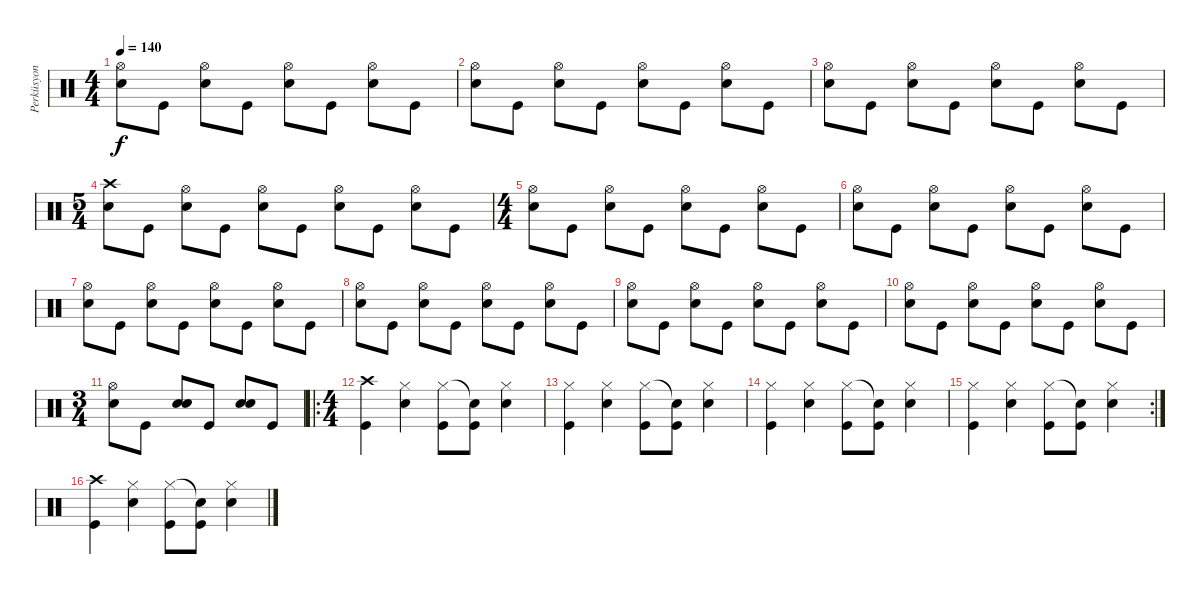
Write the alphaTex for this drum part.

\track ("Perküsyon" "Perküsyon") {instrument percussion}
\staff {score}
\articulation defaults
\ts (4 4)
\tempo 140
\clef neutral
\ks c
("Electric Snare (hit)" "Hi-Hat (open)").8{dy f} "Kick (hit)".8 ("Electric Snare (hit)" "Hi-Hat (open)").8 "Kick (hit)".8 ("Electric Snare (hit)" "Hi-Hat (open)").8 "Kick (hit)".8 ("Electric Snare (hit)" "Hi-Hat (open)").8 "Kick (hit)".8 |
("Electric Snare (hit)" "Hi-Hat (open)").8 "Kick (hit)".8 ("Electric Snare (hit)" "Hi-Hat (open)").8 "Kick (hit)".8 ("Electric Snare (hit)" "Hi-Hat (open)").8 "Kick (hit)".8 ("Electric Snare (hit)" "Hi-Hat (open)").8 "Kick (hit)".8 |
("Electric Snare (hit)" "Hi-Hat (open)").8 "Kick (hit)".8 ("Electric Snare (hit)" "Hi-Hat (open)").8 "Kick (hit)".8 ("Electric Snare (hit)" "Hi-Hat (open)").8 "Kick (hit)".8 ("Electric Snare (hit)" "Hi-Hat (open)").8 "Kick (hit)".8 |
\ts (5 4)
("Electric Snare (hit)" "Crash high (hit)").8 "Kick (hit)".8 ("Electric Snare (hit)" "Hi-Hat (open)").8 "Kick (hit)".8 ("Electric Snare (hit)" "Hi-Hat (open)").8 "Kick (hit)".8 ("Electric Snare (hit)" "Hi-Hat (open)").8 "Kick (hit)".8 ("Electric Snare (hit)" "Hi-Hat (open)").8 "Kick (hit)".8 |
\ts (4 4)
("Electric Snare (hit)" "Hi-Hat (open)").8 "Kick (hit)".8 ("Electric Snare (hit)" "Hi-Hat (open)").8 "Kick (hit)".8 ("Electric Snare (hit)" "Hi-Hat (open)").8 "Kick (hit)".8 ("Electric Snare (hit)" "Hi-Hat (open)").8 "Kick (hit)".8 |
("Electric Snare (hit)" "Hi-Hat (open)").8 "Kick (hit)".8 ("Electric Snare (hit)" "Hi-Hat (open)").8 "Kick (hit)".8 ("Electric Snare (hit)" "Hi-Hat (open)").8 "Kick (hit)".8 ("Electric Snare (hit)" "Hi-Hat (open)").8 "Kick (hit)".8 |
("Electric Snare (hit)" "Hi-Hat (open)").8 "Kick (hit)".8 ("Electric Snare (hit)" "Hi-Hat (open)").8 "Kick (hit)".8 ("Electric Snare (hit)" "Hi-Hat (open)").8 "Kick (hit)".8 ("Electric Snare (hit)" "Hi-Hat (open)").8 "Kick (hit)".8 |
("Electric Snare (hit)" "Hi-Hat (open)").8 "Kick (hit)".8 ("Electric Snare (hit)" "Hi-Hat (open)").8 "Kick (hit)".8 ("Electric Snare (hit)" "Hi-Hat (open)").8 "Kick (hit)".8 ("Electric Snare (hit)" "Hi-Hat (open)").8 "Kick (hit)".8 |
("Electric Snare (hit)" "Hi-Hat (open)").8 "Kick (hit)".8 ("Electric Snare (hit)" "Hi-Hat (open)").8 "Kick (hit)".8 ("Electric Snare (hit)" "Hi-Hat (open)").8 "Kick (hit)".8 ("Electric Snare (hit)" "Hi-Hat (open)").8 "Kick (hit)".8 |
("Electric Snare (hit)" "Hi-Hat (open)").8 "Kick (hit)".8 ("Electric Snare (hit)" "Hi-Hat (open)").8 "Kick (hit)".8 ("Electric Snare (hit)" "Hi-Hat (open)").8 "Kick (hit)".8 ("Electric Snare (hit)" "Hi-Hat (open)").8 "Kick (hit)".8 |
\ts (3 4)
("Electric Snare (hit)" "Hi-Hat (open)").8 "Kick (hit)".8 ("Electric Snare (hit)" "Electric Snare (hit)").8 "Kick (hit)".8 ("Electric Snare (hit)" "Electric Snare (hit)").8 "Kick (hit)".8 |
\ro
\ts (4 4)
("Kick (hit)" "Crash high (hit)").4 ("Electric Snare (hit)" "Hi-Hat (closed)").4 ("Kick (hit)" "Hi-Hat (closed)").8 ("Kick (hit)" "Snare (hit)"{t}).8 ("Electric Snare (hit)" "Hi-Hat (closed)").4 |
("Kick (hit)" "Hi-Hat (closed)").4 ("Electric Snare (hit)" "Hi-Hat (closed)").4 ("Kick (hit)" "Hi-Hat (closed)").8 ("Kick (hit)" "Snare (hit)"{t}).8 ("Electric Snare (hit)" "Hi-Hat (closed)").4 |
("Kick (hit)" "Hi-Hat (closed)").4 ("Electric Snare (hit)" "Hi-Hat (closed)").4 ("Kick (hit)" "Hi-Hat (closed)").8 ("Kick (hit)" "Snare (hit)"{t}).8 ("Electric Snare (hit)" "Hi-Hat (closed)").4 |
\rc 2
("Kick (hit)" "Hi-Hat (closed)").4 ("Electric Snare (hit)" "Hi-Hat (closed)").4 ("Kick (hit)" "Hi-Hat (closed)").8 ("Kick (hit)" "Snare (hit)"{t}).8 ("Electric Snare (hit)" "Hi-Hat (closed)").4 |
("Kick (hit)" "Crash high (hit)").4 ("Electric Snare (hit)" "Hi-Hat (closed)").4 ("Kick (hit)" "Hi-Hat (closed)").8 ("Kick (hit)" "Snare (hit)"{t}).8 ("Electric Snare (hit)" "Hi-Hat (closed)").4
